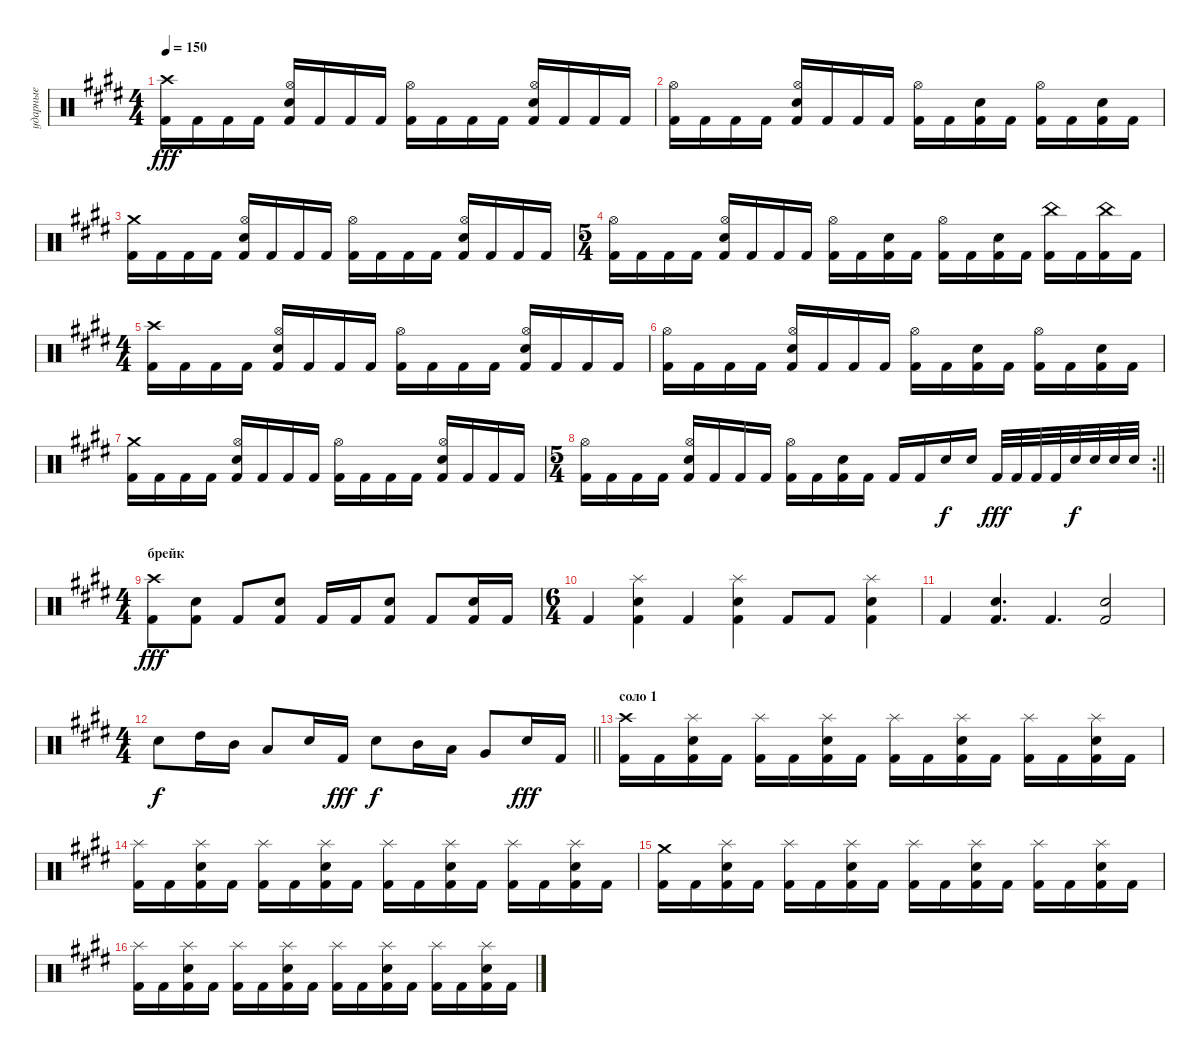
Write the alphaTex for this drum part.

\track ("ударные" "ударные") {instrument percussion}
\staff {score}
\articulation defaults
\ts (4 4)
\tempo 150
\clef neutral
\ks c#minor
("Crash high (hit)" "Kick (hit) 2").16{dy fff} "Kick (hit) 2".16 "Kick (hit) 2".16 "Kick (hit) 2".16 ("Hi-Hat (open)" "Electric Snare (hit)" "Kick (hit) 2").16 "Kick (hit) 2".16 "Kick (hit) 2".16 "Kick (hit) 2".16 ("Hi-Hat (open)" "Kick (hit) 2").16 "Kick (hit) 2".16 "Kick (hit) 2".16 "Kick (hit) 2".16 ("Hi-Hat (open)" "Electric Snare (hit)" "Kick (hit) 2").16 "Kick (hit) 2".16 "Kick (hit) 2".16 "Kick (hit) 2".16 |
("Hi-Hat (open)" "Kick (hit) 2").16 "Kick (hit) 2".16 "Kick (hit) 2".16 "Kick (hit) 2".16 ("Hi-Hat (open)" "Electric Snare (hit)" "Kick (hit) 2").16 "Kick (hit) 2".16 "Kick (hit) 2".16 "Kick (hit) 2".16 ("Hi-Hat (open)" "Kick (hit) 2").16 "Kick (hit) 2".16 ("Electric Snare (hit)" "Kick (hit) 2").16 "Kick (hit) 2".16 ("Hi-Hat (open)" "Kick (hit) 2").16 "Kick (hit) 2".16 ("Electric Snare (hit)" "Kick (hit) 2").16 "Kick (hit) 2".16 |
("Crash medium (hit)" "Kick (hit) 2").16 "Kick (hit) 2".16 "Kick (hit) 2".16 "Kick (hit) 2".16 ("Hi-Hat (open)" "Electric Snare (hit)" "Kick (hit) 2").16 "Kick (hit) 2".16 "Kick (hit) 2".16 "Kick (hit) 2".16 ("Hi-Hat (open)" "Kick (hit) 2").16 "Kick (hit) 2".16 "Kick (hit) 2".16 "Kick (hit) 2".16 ("Hi-Hat (open)" "Electric Snare (hit)" "Kick (hit) 2").16 "Kick (hit) 2".16 "Kick (hit) 2".16 "Kick (hit) 2".16 |
\ts (5 4)
("Hi-Hat (open)" "Kick (hit) 2").16 "Kick (hit) 2".16 "Kick (hit) 2".16 "Kick (hit) 2".16 ("Hi-Hat (open)" "Electric Snare (hit)" "Kick (hit) 2").16 "Kick (hit) 2".16 "Kick (hit) 2".16 "Kick (hit) 2".16 ("Hi-Hat (open)" "Kick (hit) 2").16 "Kick (hit) 2".16 ("Electric Snare (hit)" "Kick (hit) 2").16 "Kick (hit) 2".16 ("Hi-Hat (open)" "Kick (hit) 2").16 "Kick (hit) 2".16 ("Electric Snare (hit)" "Kick (hit) 2").16 "Kick (hit) 2".16 ("China (hit)" "Kick (hit) 2").16 "Kick (hit) 2".16 ("China (hit)" "Kick (hit) 2").16 "Kick (hit) 2".16 |
\ts (4 4)
("Crash high (hit)" "Kick (hit) 2").16 "Kick (hit) 2".16 "Kick (hit) 2".16 "Kick (hit) 2".16 ("Hi-Hat (open)" "Electric Snare (hit)" "Kick (hit) 2").16 "Kick (hit) 2".16 "Kick (hit) 2".16 "Kick (hit) 2".16 ("Hi-Hat (open)" "Kick (hit) 2").16 "Kick (hit) 2".16 "Kick (hit) 2".16 "Kick (hit) 2".16 ("Hi-Hat (open)" "Electric Snare (hit)" "Kick (hit) 2").16 "Kick (hit) 2".16 "Kick (hit) 2".16 "Kick (hit) 2".16 |
("Hi-Hat (open)" "Kick (hit) 2").16 "Kick (hit) 2".16 "Kick (hit) 2".16 "Kick (hit) 2".16 ("Hi-Hat (open)" "Electric Snare (hit)" "Kick (hit) 2").16 "Kick (hit) 2".16 "Kick (hit) 2".16 "Kick (hit) 2".16 ("Hi-Hat (open)" "Kick (hit) 2").16 "Kick (hit) 2".16 ("Electric Snare (hit)" "Kick (hit) 2").16 "Kick (hit) 2".16 ("Hi-Hat (open)" "Kick (hit) 2").16 "Kick (hit) 2".16 ("Electric Snare (hit)" "Kick (hit) 2").16 "Kick (hit) 2".16 |
("Crash medium (hit)" "Kick (hit) 2").16 "Kick (hit) 2".16 "Kick (hit) 2".16 "Kick (hit) 2".16 ("Hi-Hat (open)" "Electric Snare (hit)" "Kick (hit) 2").16 "Kick (hit) 2".16 "Kick (hit) 2".16 "Kick (hit) 2".16 ("Hi-Hat (open)" "Kick (hit) 2").16 "Kick (hit) 2".16 "Kick (hit) 2".16 "Kick (hit) 2".16 ("Hi-Hat (open)" "Electric Snare (hit)" "Kick (hit) 2").16 "Kick (hit) 2".16 "Kick (hit) 2".16 "Kick (hit) 2".16 |
\rc 2
\ts (5 4)
\barLineRight lightlight
("Hi-Hat (open)" "Kick (hit) 2").16 "Kick (hit) 2".16 "Kick (hit) 2".16 "Kick (hit) 2".16 ("Hi-Hat (open)" "Electric Snare (hit)" "Kick (hit) 2").16 "Kick (hit) 2".16 "Kick (hit) 2".16 "Kick (hit) 2".16 ("Hi-Hat (open)" "Kick (hit) 2").16 "Kick (hit) 2".16 ("Electric Snare (hit)" "Kick (hit) 2").16 "Kick (hit) 2".16 "Kick (hit) 2".16 "Kick (hit) 2".16 "Electric Snare (hit)".16{dy f} "Electric Snare (hit)".16 "Kick (hit) 2".32{dy fff} "Kick (hit) 2".32 "Kick (hit) 2".32 "Kick (hit) 2".32 "Electric Snare (hit)".32{dy f} "Electric Snare (hit)".32 "Electric Snare (hit)".32 "Electric Snare (hit)".32 |
\ts (4 4)
\section ("" "брейк")
("Crash high (hit)" "Kick (hit) 2").8{dy fff} ("Electric Snare (hit)" "Kick (hit) 2").8 "Kick (hit) 2".8 ("Electric Snare (hit)" "Kick (hit) 2").8 "Kick (hit) 2".16 "Kick (hit) 2".16 ("Electric Snare (hit)" "Kick (hit) 2").8 "Kick (hit) 2".8 ("Electric Snare (hit)" "Kick (hit) 2").16 "Kick (hit) 2".16 |
\ts (6 4)
"Kick (hit) 2".4 ("Splash (hit)" "Electric Snare (hit)" "Kick (hit) 2").4 "Kick (hit) 2".4 ("Splash (hit)" "Electric Snare (hit)" "Kick (hit) 2").4 "Kick (hit) 2".8 "Kick (hit) 2".8 ("Splash (hit)" "Electric Snare (hit)" "Kick (hit) 2").4 |
"Kick (hit) 2".4 ("Electric Snare (hit)" "Kick (hit) 2").4{d} "Kick (hit) 2".4{d} ("Electric Snare (hit)" "Kick (hit) 2").2 |
\ts (4 4)
\barLineRight lightlight "Electric Snare (hit)".8{dy f} "High Tom (hit)".16 "Mid Tom (hit)".16 "Low Tom (hit)".8 "Electric Snare (hit)".16 "Kick (hit) 2".16{dy fff} "Electric Snare (hit)".8{dy f} "Mid Tom (hit)".16 "Low Tom (hit)".16 "Very Low Tom (hit)".8 "Electric Snare (hit)".16{dy fff} "Kick (hit) 2".16
|
\section ("" "соло 1")
("Crash high (hit)" "Kick (hit) 2").16 "Kick (hit) 2".16 ("Splash (hit)" "Electric Snare (hit)" "Kick (hit) 2").16 "Kick (hit) 2".16 ("Splash (hit)" "Kick (hit) 2").16 "Kick (hit) 2".16 ("Splash (hit)" "Electric Snare (hit)" "Kick (hit) 2").16 "Kick (hit) 2".16 ("Splash (hit)" "Kick (hit) 2").16 "Kick (hit) 2".16 ("Splash (hit)" "Electric Snare (hit)" "Kick (hit) 2").16 "Kick (hit) 2".16 ("Splash (hit)" "Kick (hit) 2").16 "Kick (hit) 2".16 ("Splash (hit)" "Electric Snare (hit)" "Kick (hit) 2").16 "Kick (hit) 2".16 |
("Splash (hit)" "Kick (hit) 2").16 "Kick (hit) 2".16 ("Splash (hit)" "Electric Snare (hit)" "Kick (hit) 2").16 "Kick (hit) 2".16 ("Splash (hit)" "Kick (hit) 2").16 "Kick (hit) 2".16 ("Splash (hit)" "Electric Snare (hit)" "Kick (hit) 2").16 "Kick (hit) 2".16 ("Splash (hit)" "Kick (hit) 2").16 "Kick (hit) 2".16 ("Splash (hit)" "Electric Snare (hit)" "Kick (hit) 2").16 "Kick (hit) 2".16 ("Splash (hit)" "Kick (hit) 2").16 "Kick (hit) 2".16 ("Splash (hit)" "Electric Snare (hit)" "Kick (hit) 2").16 "Kick (hit) 2".16 |
("Crash medium (hit)" "Kick (hit) 2").16 "Kick (hit) 2".16 ("Splash (hit)" "Electric Snare (hit)" "Kick (hit) 2").16 "Kick (hit) 2".16 ("Splash (hit)" "Kick (hit) 2").16 "Kick (hit) 2".16 ("Splash (hit)" "Electric Snare (hit)" "Kick (hit) 2").16 "Kick (hit) 2".16 ("Splash (hit)" "Kick (hit) 2").16 "Kick (hit) 2".16 ("Splash (hit)" "Electric Snare (hit)" "Kick (hit) 2").16 "Kick (hit) 2".16 ("Splash (hit)" "Kick (hit) 2").16 "Kick (hit) 2".16 ("Splash (hit)" "Electric Snare (hit)" "Kick (hit) 2").16 "Kick (hit) 2".16 |
("Splash (hit)" "Kick (hit) 2").16 "Kick (hit) 2".16 ("Splash (hit)" "Electric Snare (hit)" "Kick (hit) 2").16 "Kick (hit) 2".16 ("Splash (hit)" "Kick (hit) 2").16 "Kick (hit) 2".16 ("Splash (hit)" "Electric Snare (hit)" "Kick (hit) 2").16 "Kick (hit) 2".16 ("Splash (hit)" "Kick (hit) 2").16 "Kick (hit) 2".16 ("Splash (hit)" "Electric Snare (hit)" "Kick (hit) 2").16 "Kick (hit) 2".16 ("Splash (hit)" "Kick (hit) 2").16 "Kick (hit) 2".16 ("Splash (hit)" "Electric Snare (hit)" "Kick (hit) 2").16 "Kick (hit) 2".16
